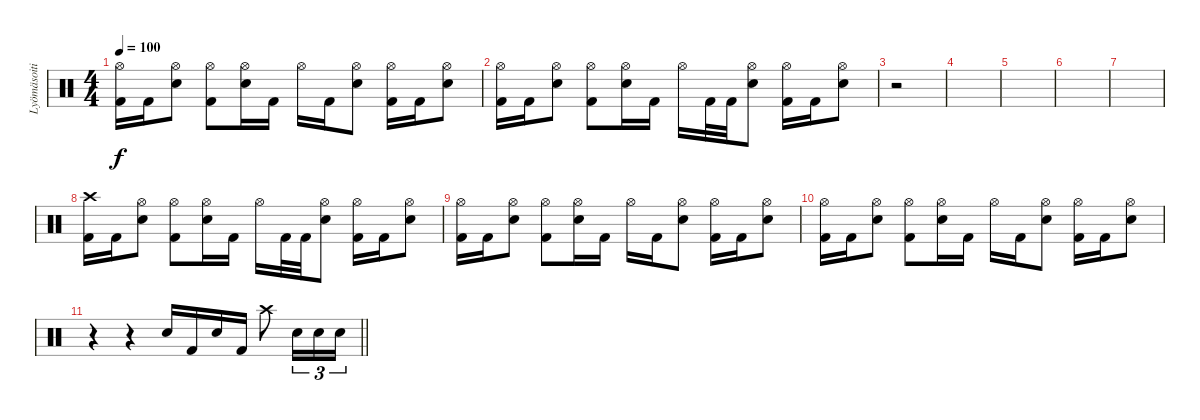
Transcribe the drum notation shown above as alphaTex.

\track ("Lyömäsoitin" "Lyömäsoiti") {instrument percussion}
\staff {score}
\articulation defaults
\ts (4 4)
\tempo 100
\clef neutral
\ks c
("Hi-Hat (open)" "Kick (hit) 2").16{dy f} "Kick (hit) 2".16 ("Hi-Hat (open)" "Snare (hit) 2").8 ("Hi-Hat (open)" "Kick (hit) 2").8 ("Hi-Hat (open)" "Snare (hit) 2").16 "Kick (hit) 2".16 "Hi-Hat (open)".16 "Kick (hit) 2".16 ("Hi-Hat (open)" "Snare (hit) 2").8 ("Hi-Hat (open)" "Kick (hit) 2").16 "Kick (hit) 2".16 ("Hi-Hat (open)" "Snare (hit) 2").8 |
("Hi-Hat (open)" "Kick (hit) 2").16 "Kick (hit) 2".16 ("Hi-Hat (open)" "Snare (hit) 2").8 ("Hi-Hat (open)" "Kick (hit) 2").8 ("Hi-Hat (open)" "Snare (hit) 2").16 "Kick (hit) 2".16 "Hi-Hat (open)".16 "Kick (hit) 2".32 "Kick (hit) 2".32 ("Hi-Hat (open)" "Snare (hit) 2").8 ("Hi-Hat (open)" "Kick (hit) 2").16 "Kick (hit) 2".16 ("Hi-Hat (open)" "Snare (hit) 2").8 |
r.2 |
|
|
|
|
("Crash high (hit)" "Kick (hit) 2").16 "Kick (hit) 2".16 ("Hi-Hat (open)" "Snare (hit) 2").8 ("Hi-Hat (open)" "Kick (hit) 2").8 ("Hi-Hat (open)" "Snare (hit) 2").16 "Kick (hit) 2".16 "Hi-Hat (open)".16 "Kick (hit) 2".32 "Kick (hit) 2".32 ("Hi-Hat (open)" "Snare (hit) 2").8 ("Hi-Hat (open)" "Kick (hit) 2").16 "Kick (hit) 2".16 ("Hi-Hat (open)" "Snare (hit) 2").8 |
("Hi-Hat (open)" "Kick (hit) 2").16 "Kick (hit) 2".16 ("Hi-Hat (open)" "Snare (hit) 2").8 ("Hi-Hat (open)" "Kick (hit) 2").8 ("Hi-Hat (open)" "Snare (hit) 2").16 "Kick (hit) 2".16 "Hi-Hat (open)".16 "Kick (hit) 2".16 ("Hi-Hat (open)" "Snare (hit) 2").8 ("Hi-Hat (open)" "Kick (hit) 2").16 "Kick (hit) 2".16 ("Hi-Hat (open)" "Snare (hit) 2").8 |
("Hi-Hat (open)" "Kick (hit) 2").16 "Kick (hit) 2".16 ("Hi-Hat (open)" "Snare (hit) 2").8 ("Hi-Hat (open)" "Kick (hit) 2").8 ("Hi-Hat (open)" "Snare (hit) 2").16 "Kick (hit) 2".16 "Hi-Hat (open)".16 "Kick (hit) 2".16 ("Hi-Hat (open)" "Snare (hit) 2").8 ("Hi-Hat (open)" "Kick (hit) 2").16 "Kick (hit) 2".16 ("Hi-Hat (open)" "Snare (hit) 2").8 |
\barLineRight lightlight
r.4 r.4 "Snare (hit) 2".16 "Kick (hit) 2".16 "Snare (hit) 2".16 "Kick (hit) 2".16 "Crash high (hit)".8 "Snare (hit) 2".16{tu (3 2)} "Snare (hit) 2".16{tu (3 2)} "Snare (hit) 2".16{tu (3 2)}
